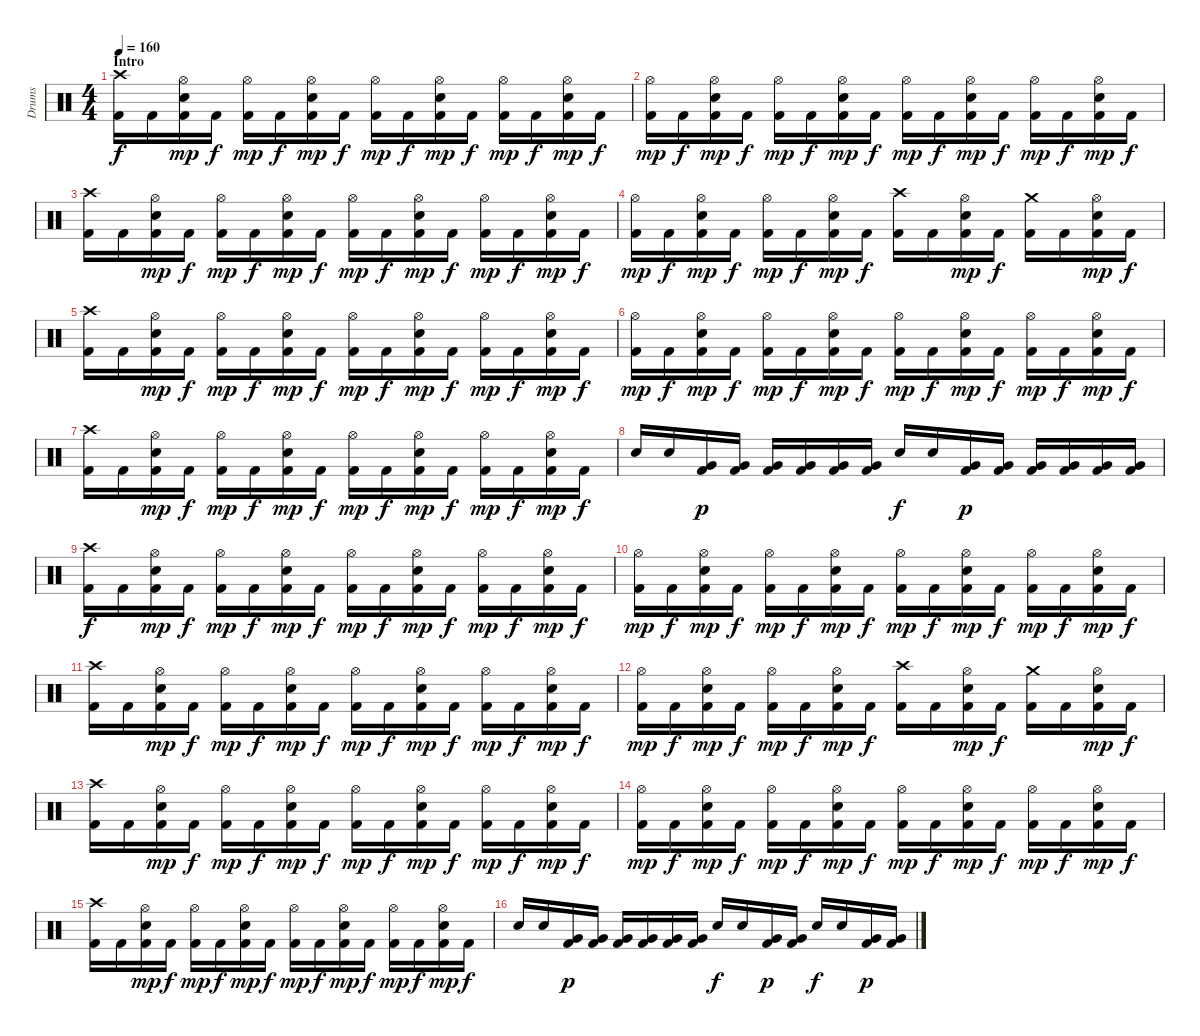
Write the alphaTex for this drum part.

\track ("Drums" "Drums") {instrument percussion}
\staff {score}
\articulation defaults
\ts (4 4)
\section ("" "Intro")
\tempo 160
\clef neutral
\ks c
("Kick (hit) 2" "Crash high (hit)").16{dy f} "Kick (hit) 2".16 ("Kick (hit) 2" "Electric Snare (hit)" "Hi-Hat (open)").16{dy mp} "Kick (hit) 2".16{dy f} ("Kick (hit) 2" "Hi-Hat (open)").16{dy mp} "Kick (hit) 2".16{dy f} ("Kick (hit) 2" "Electric Snare (hit)" "Hi-Hat (open)").16{dy mp} "Kick (hit) 2".16{dy f} ("Kick (hit) 2" "Hi-Hat (open)").16{dy mp} "Kick (hit) 2".16{dy f} ("Kick (hit) 2" "Electric Snare (hit)" "Hi-Hat (open)").16{dy mp} "Kick (hit) 2".16{dy f} ("Kick (hit) 2" "Hi-Hat (open)").16{dy mp} "Kick (hit) 2".16{dy f} ("Kick (hit) 2" "Electric Snare (hit)" "Hi-Hat (open)").16{dy mp} "Kick (hit) 2".16{dy f} |
("Kick (hit) 2" "Hi-Hat (open)").16{dy mp} "Kick (hit) 2".16{dy f} ("Kick (hit) 2" "Electric Snare (hit)" "Hi-Hat (open)").16{dy mp} "Kick (hit) 2".16{dy f} ("Kick (hit) 2" "Hi-Hat (open)").16{dy mp} "Kick (hit) 2".16{dy f} ("Kick (hit) 2" "Electric Snare (hit)" "Hi-Hat (open)").16{dy mp} "Kick (hit) 2".16{dy f} ("Kick (hit) 2" "Hi-Hat (open)").16{dy mp} "Kick (hit) 2".16{dy f} ("Kick (hit) 2" "Electric Snare (hit)" "Hi-Hat (open)").16{dy mp} "Kick (hit) 2".16{dy f} ("Kick (hit) 2" "Hi-Hat (open)").16{dy mp} "Kick (hit) 2".16{dy f} ("Kick (hit) 2" "Electric Snare (hit)" "Hi-Hat (open)").16{dy mp} "Kick (hit) 2".16{dy f} |
("Kick (hit) 2" "Crash high (hit)").16 "Kick (hit) 2".16 ("Kick (hit) 2" "Electric Snare (hit)" "Hi-Hat (open)").16{dy mp} "Kick (hit) 2".16{dy f} ("Kick (hit) 2" "Hi-Hat (open)").16{dy mp} "Kick (hit) 2".16{dy f} ("Kick (hit) 2" "Electric Snare (hit)" "Hi-Hat (open)").16{dy mp} "Kick (hit) 2".16{dy f} ("Kick (hit) 2" "Hi-Hat (open)").16{dy mp} "Kick (hit) 2".16{dy f} ("Kick (hit) 2" "Electric Snare (hit)" "Hi-Hat (open)").16{dy mp} "Kick (hit) 2".16{dy f} ("Kick (hit) 2" "Hi-Hat (open)").16{dy mp} "Kick (hit) 2".16{dy f} ("Kick (hit) 2" "Electric Snare (hit)" "Hi-Hat (open)").16{dy mp} "Kick (hit) 2".16{dy f} |
("Kick (hit) 2" "Hi-Hat (open)").16{dy mp} "Kick (hit) 2".16{dy f} ("Kick (hit) 2" "Electric Snare (hit)" "Hi-Hat (open)").16{dy mp} "Kick (hit) 2".16{dy f} ("Kick (hit) 2" "Hi-Hat (open)").16{dy mp} "Kick (hit) 2".16{dy f} ("Kick (hit) 2" "Electric Snare (hit)" "Hi-Hat (open)").16{dy mp} "Kick (hit) 2".16{dy f} ("Kick (hit) 2" "Crash high (hit)").16 "Kick (hit) 2".16 ("Kick (hit) 2" "Electric Snare (hit)" "Hi-Hat (open)").16{dy mp} "Kick (hit) 2".16{dy f} ("Kick (hit) 2" "Crash medium (hit)").16 "Kick (hit) 2".16 ("Kick (hit) 2" "Electric Snare (hit)" "Hi-Hat (open)").16{dy mp} "Kick (hit) 2".16{dy f} |
("Kick (hit) 2" "Crash high (hit)").16 "Kick (hit) 2".16 ("Kick (hit) 2" "Electric Snare (hit)" "Hi-Hat (open)").16{dy mp} "Kick (hit) 2".16{dy f} ("Kick (hit) 2" "Hi-Hat (open)").16{dy mp} "Kick (hit) 2".16{dy f} ("Kick (hit) 2" "Electric Snare (hit)" "Hi-Hat (open)").16{dy mp} "Kick (hit) 2".16{dy f} ("Kick (hit) 2" "Hi-Hat (open)").16{dy mp} "Kick (hit) 2".16{dy f} ("Kick (hit) 2" "Electric Snare (hit)" "Hi-Hat (open)").16{dy mp} "Kick (hit) 2".16{dy f} ("Kick (hit) 2" "Hi-Hat (open)").16{dy mp} "Kick (hit) 2".16{dy f} ("Kick (hit) 2" "Electric Snare (hit)" "Hi-Hat (open)").16{dy mp} "Kick (hit) 2".16{dy f} |
("Kick (hit) 2" "Hi-Hat (open)").16{dy mp} "Kick (hit) 2".16{dy f} ("Kick (hit) 2" "Electric Snare (hit)" "Hi-Hat (open)").16{dy mp} "Kick (hit) 2".16{dy f} ("Kick (hit) 2" "Hi-Hat (open)").16{dy mp} "Kick (hit) 2".16{dy f} ("Kick (hit) 2" "Electric Snare (hit)" "Hi-Hat (open)").16{dy mp} "Kick (hit) 2".16{dy f} ("Kick (hit) 2" "Hi-Hat (open)").16{dy mp} "Kick (hit) 2".16{dy f} ("Kick (hit) 2" "Electric Snare (hit)" "Hi-Hat (open)").16{dy mp} "Kick (hit) 2".16{dy f} ("Kick (hit) 2" "Hi-Hat (open)").16{dy mp} "Kick (hit) 2".16{dy f} ("Kick (hit) 2" "Electric Snare (hit)" "Hi-Hat (open)").16{dy mp} "Kick (hit) 2".16{dy f} |
("Kick (hit) 2" "Crash high (hit)").16 "Kick (hit) 2".16 ("Kick (hit) 2" "Electric Snare (hit)" "Hi-Hat (open)").16{dy mp} "Kick (hit) 2".16{dy f} ("Kick (hit) 2" "Hi-Hat (open)").16{dy mp} "Kick (hit) 2".16{dy f} ("Kick (hit) 2" "Electric Snare (hit)" "Hi-Hat (open)").16{dy mp} "Kick (hit) 2".16{dy f} ("Kick (hit) 2" "Hi-Hat (open)").16{dy mp} "Kick (hit) 2".16{dy f} ("Kick (hit) 2" "Electric Snare (hit)" "Hi-Hat (open)").16{dy mp} "Kick (hit) 2".16{dy f} ("Kick (hit) 2" "Hi-Hat (open)").16{dy mp} "Kick (hit) 2".16{dy f} ("Kick (hit) 2" "Electric Snare (hit)" "Hi-Hat (open)").16{dy mp} "Kick (hit) 2".16{dy f} |
"Electric Snare (hit)".16 "Electric Snare (hit)".16 ("Kick (hit) 2" "Very Low Tom (hit)").16{dy p} ("Kick (hit) 2" "Very Low Tom (hit)").16 ("Kick (hit) 2" "Very Low Tom (hit)").16 ("Kick (hit) 2" "Very Low Tom (hit)").16 ("Kick (hit) 2" "Very Low Tom (hit)").16 ("Kick (hit) 2" "Very Low Tom (hit)").16 "Electric Snare (hit)".16{dy f} "Electric Snare (hit)".16 ("Kick (hit) 2" "Very Low Tom (hit)").16{dy p} ("Kick (hit) 2" "Very Low Tom (hit)").16 ("Kick (hit) 2" "Very Low Tom (hit)").16 ("Kick (hit) 2" "Very Low Tom (hit)").16 ("Kick (hit) 2" "Very Low Tom (hit)").16 ("Kick (hit) 2" "Very Low Tom (hit)").16 |
("Kick (hit) 2" "Crash high (hit)").16{dy f} "Kick (hit) 2".16 ("Kick (hit) 2" "Electric Snare (hit)" "Hi-Hat (open)").16{dy mp} "Kick (hit) 2".16{dy f} ("Kick (hit) 2" "Hi-Hat (open)").16{dy mp} "Kick (hit) 2".16{dy f} ("Kick (hit) 2" "Electric Snare (hit)" "Hi-Hat (open)").16{dy mp} "Kick (hit) 2".16{dy f} ("Kick (hit) 2" "Hi-Hat (open)").16{dy mp} "Kick (hit) 2".16{dy f} ("Kick (hit) 2" "Electric Snare (hit)" "Hi-Hat (open)").16{dy mp} "Kick (hit) 2".16{dy f} ("Kick (hit) 2" "Hi-Hat (open)").16{dy mp} "Kick (hit) 2".16{dy f} ("Kick (hit) 2" "Electric Snare (hit)" "Hi-Hat (open)").16{dy mp} "Kick (hit) 2".16{dy f} |
("Kick (hit) 2" "Hi-Hat (open)").16{dy mp} "Kick (hit) 2".16{dy f} ("Kick (hit) 2" "Electric Snare (hit)" "Hi-Hat (open)").16{dy mp} "Kick (hit) 2".16{dy f} ("Kick (hit) 2" "Hi-Hat (open)").16{dy mp} "Kick (hit) 2".16{dy f} ("Kick (hit) 2" "Electric Snare (hit)" "Hi-Hat (open)").16{dy mp} "Kick (hit) 2".16{dy f} ("Kick (hit) 2" "Hi-Hat (open)").16{dy mp} "Kick (hit) 2".16{dy f} ("Kick (hit) 2" "Electric Snare (hit)" "Hi-Hat (open)").16{dy mp} "Kick (hit) 2".16{dy f} ("Kick (hit) 2" "Hi-Hat (open)").16{dy mp} "Kick (hit) 2".16{dy f} ("Kick (hit) 2" "Electric Snare (hit)" "Hi-Hat (open)").16{dy mp} "Kick (hit) 2".16{dy f} |
("Kick (hit) 2" "Crash high (hit)").16 "Kick (hit) 2".16 ("Kick (hit) 2" "Electric Snare (hit)" "Hi-Hat (open)").16{dy mp} "Kick (hit) 2".16{dy f} ("Kick (hit) 2" "Hi-Hat (open)").16{dy mp} "Kick (hit) 2".16{dy f} ("Kick (hit) 2" "Electric Snare (hit)" "Hi-Hat (open)").16{dy mp} "Kick (hit) 2".16{dy f} ("Kick (hit) 2" "Hi-Hat (open)").16{dy mp} "Kick (hit) 2".16{dy f} ("Kick (hit) 2" "Electric Snare (hit)" "Hi-Hat (open)").16{dy mp} "Kick (hit) 2".16{dy f} ("Kick (hit) 2" "Hi-Hat (open)").16{dy mp} "Kick (hit) 2".16{dy f} ("Kick (hit) 2" "Electric Snare (hit)" "Hi-Hat (open)").16{dy mp} "Kick (hit) 2".16{dy f} |
("Kick (hit) 2" "Hi-Hat (open)").16{dy mp} "Kick (hit) 2".16{dy f} ("Kick (hit) 2" "Electric Snare (hit)" "Hi-Hat (open)").16{dy mp} "Kick (hit) 2".16{dy f} ("Kick (hit) 2" "Hi-Hat (open)").16{dy mp} "Kick (hit) 2".16{dy f} ("Kick (hit) 2" "Electric Snare (hit)" "Hi-Hat (open)").16{dy mp} "Kick (hit) 2".16{dy f} ("Kick (hit) 2" "Crash high (hit)").16 "Kick (hit) 2".16 ("Kick (hit) 2" "Electric Snare (hit)" "Hi-Hat (open)").16{dy mp} "Kick (hit) 2".16{dy f} ("Kick (hit) 2" "Crash medium (hit)").16 "Kick (hit) 2".16 ("Kick (hit) 2" "Electric Snare (hit)" "Hi-Hat (open)").16{dy mp} "Kick (hit) 2".16{dy f} |
("Kick (hit) 2" "Crash high (hit)").16 "Kick (hit) 2".16 ("Kick (hit) 2" "Electric Snare (hit)" "Hi-Hat (open)").16{dy mp} "Kick (hit) 2".16{dy f} ("Kick (hit) 2" "Hi-Hat (open)").16{dy mp} "Kick (hit) 2".16{dy f} ("Kick (hit) 2" "Electric Snare (hit)" "Hi-Hat (open)").16{dy mp} "Kick (hit) 2".16{dy f} ("Kick (hit) 2" "Hi-Hat (open)").16{dy mp} "Kick (hit) 2".16{dy f} ("Kick (hit) 2" "Electric Snare (hit)" "Hi-Hat (open)").16{dy mp} "Kick (hit) 2".16{dy f} ("Kick (hit) 2" "Hi-Hat (open)").16{dy mp} "Kick (hit) 2".16{dy f} ("Kick (hit) 2" "Electric Snare (hit)" "Hi-Hat (open)").16{dy mp} "Kick (hit) 2".16{dy f} |
("Kick (hit) 2" "Hi-Hat (open)").16{dy mp} "Kick (hit) 2".16{dy f} ("Kick (hit) 2" "Electric Snare (hit)" "Hi-Hat (open)").16{dy mp} "Kick (hit) 2".16{dy f} ("Kick (hit) 2" "Hi-Hat (open)").16{dy mp} "Kick (hit) 2".16{dy f} ("Kick (hit) 2" "Electric Snare (hit)" "Hi-Hat (open)").16{dy mp} "Kick (hit) 2".16{dy f} ("Kick (hit) 2" "Hi-Hat (open)").16{dy mp} "Kick (hit) 2".16{dy f} ("Kick (hit) 2" "Electric Snare (hit)" "Hi-Hat (open)").16{dy mp} "Kick (hit) 2".16{dy f} ("Kick (hit) 2" "Hi-Hat (open)").16{dy mp} "Kick (hit) 2".16{dy f} ("Kick (hit) 2" "Electric Snare (hit)" "Hi-Hat (open)").16{dy mp} "Kick (hit) 2".16{dy f} |
("Kick (hit) 2" "Crash high (hit)").16 "Kick (hit) 2".16 ("Kick (hit) 2" "Electric Snare (hit)" "Hi-Hat (open)").16{dy mp} "Kick (hit) 2".16{dy f} ("Kick (hit) 2" "Hi-Hat (open)").16{dy mp} "Kick (hit) 2".16{dy f} ("Kick (hit) 2" "Electric Snare (hit)" "Hi-Hat (open)").16{dy mp} "Kick (hit) 2".16{dy f} ("Kick (hit) 2" "Hi-Hat (open)").16{dy mp} "Kick (hit) 2".16{dy f} ("Kick (hit) 2" "Electric Snare (hit)" "Hi-Hat (open)").16{dy mp} "Kick (hit) 2".16{dy f} ("Kick (hit) 2" "Hi-Hat (open)").16{dy mp} "Kick (hit) 2".16{dy f} ("Kick (hit) 2" "Electric Snare (hit)" "Hi-Hat (open)").16{dy mp} "Kick (hit) 2".16{dy f} |
"Electric Snare (hit)".16 "Electric Snare (hit)".16 ("Kick (hit) 2" "Very Low Tom (hit)").16{dy p} ("Kick (hit) 2" "Very Low Tom (hit)").16 ("Kick (hit) 2" "Very Low Tom (hit)").16 ("Kick (hit) 2" "Very Low Tom (hit)").16 ("Kick (hit) 2" "Very Low Tom (hit)").16 ("Kick (hit) 2" "Very Low Tom (hit)").16 "Electric Snare (hit)".16{dy f} "Electric Snare (hit)".16 ("Kick (hit) 2" "Very Low Tom (hit)").16{dy p} ("Kick (hit) 2" "Very Low Tom (hit)").16 "Electric Snare (hit)".16{dy f} "Electric Snare (hit)".16 ("Kick (hit) 2" "Very Low Tom (hit)").16{dy p} ("Kick (hit) 2" "Very Low Tom (hit)").16
